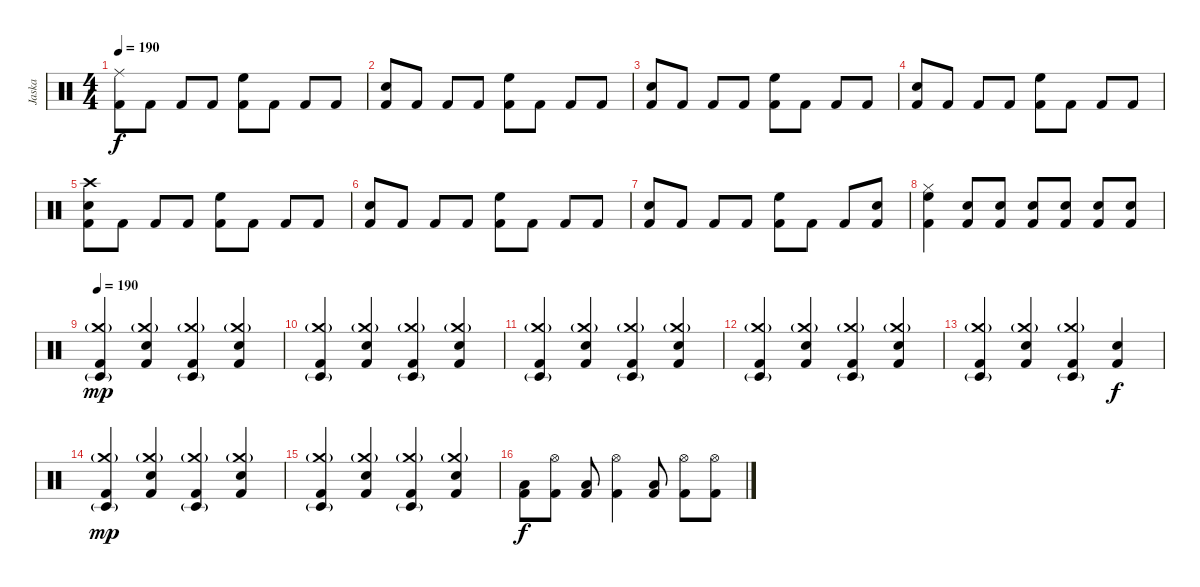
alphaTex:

\track ("Jaska" "Jaska") {instrument percussion}
\staff {score}
\articulation defaults
\ts (4 4)
\tempo 190
\clef neutral
\ks c
("Kick (hit) 2" "Ride (middle)").8{dy f} "Kick (hit) 2".8 "Kick (hit) 2".8 "Kick (hit) 2".8 ("Kick (hit) 2" "High Floor Tom (hit)").8 "Kick (hit) 2".8 "Kick (hit) 2".8 "Kick (hit) 2".8 |
("Kick (hit) 2" "Electric Snare (hit)").8 "Kick (hit) 2".8 "Kick (hit) 2".8 "Kick (hit) 2".8 ("Kick (hit) 2" "High Floor Tom (hit)").8 "Kick (hit) 2".8 "Kick (hit) 2".8 "Kick (hit) 2".8 |
("Kick (hit) 2" "Electric Snare (hit)").8 "Kick (hit) 2".8 "Kick (hit) 2".8 "Kick (hit) 2".8 ("Kick (hit) 2" "High Floor Tom (hit)").8 "Kick (hit) 2".8 "Kick (hit) 2".8 "Kick (hit) 2".8 |
("Kick (hit) 2" "Electric Snare (hit)").8 "Kick (hit) 2".8 "Kick (hit) 2".8 "Kick (hit) 2".8 ("Kick (hit) 2" "High Floor Tom (hit)").8 "Kick (hit) 2".8 "Kick (hit) 2".8 "Kick (hit) 2".8 |
("Kick (hit) 2" "Electric Snare (hit)" "Crash high (hit)").8 "Kick (hit) 2".8 "Kick (hit) 2".8 "Kick (hit) 2".8 ("Kick (hit) 2" "High Floor Tom (hit)").8 "Kick (hit) 2".8 "Kick (hit) 2".8 "Kick (hit) 2".8 |
("Kick (hit) 2" "Electric Snare (hit)").8 "Kick (hit) 2".8 "Kick (hit) 2".8 "Kick (hit) 2".8 ("Kick (hit) 2" "High Floor Tom (hit)").8 "Kick (hit) 2".8 "Kick (hit) 2".8 "Kick (hit) 2".8 |
("Kick (hit) 2" "Electric Snare (hit)").8 "Kick (hit) 2".8 "Kick (hit) 2".8 "Kick (hit) 2".8 ("Kick (hit) 2" "High Floor Tom (hit)").8 "Kick (hit) 2".8 "Kick (hit) 2".8 ("Kick (hit) 2" "Electric Snare (hit)").8 |
("Kick (hit) 2" "Hi-Hat (closed)" "High Floor Tom (hit)").4 ("Kick (hit) 2" "Electric Snare (hit)").8 ("Kick (hit) 2" "Electric Snare (hit)").8 ("Kick (hit) 2" "Electric Snare (hit)").8 ("Kick (hit) 2" "Electric Snare (hit)").8 ("Kick (hit) 2" "Electric Snare (hit)").8 ("Kick (hit) 2" "Electric Snare (hit)").8 |
\tempo 190
("Kick (hit) 2" "Crash medium (hit)"{g} "Timbale low (hit)"{g}).4{dy mp} ("Kick (hit) 2" "Crash medium (hit)"{g} "Snare (hit) 2").4 ("Kick (hit) 2" "Crash medium (hit)"{g} "Timbale low (hit)"{g}).4 ("Kick (hit) 2" "Crash medium (hit)"{g} "Snare (hit) 2").4 |
("Kick (hit) 2" "Crash medium (hit)"{g} "Timbale low (hit)"{g}).4 ("Kick (hit) 2" "Crash medium (hit)"{g} "Snare (hit) 2").4 ("Kick (hit) 2" "Crash medium (hit)"{g} "Timbale low (hit)"{g}).4 ("Kick (hit) 2" "Crash medium (hit)"{g} "Snare (hit) 2").4 |
("Kick (hit) 2" "Crash medium (hit)"{g} "Timbale low (hit)"{g}).4 ("Kick (hit) 2" "Crash medium (hit)"{g} "Snare (hit) 2").4 ("Kick (hit) 2" "Crash medium (hit)"{g} "Timbale low (hit)"{g}).4 ("Kick (hit) 2" "Crash medium (hit)"{g} "Snare (hit) 2").4 |
("Kick (hit) 2" "Crash medium (hit)"{g} "Timbale low (hit)"{g}).4 ("Kick (hit) 2" "Crash medium (hit)"{g} "Snare (hit) 2").4 ("Kick (hit) 2" "Crash medium (hit)"{g} "Timbale low (hit)"{g}).4 ("Kick (hit) 2" "Crash medium (hit)"{g} "Snare (hit) 2").4 |
("Kick (hit) 2" "Crash medium (hit)"{g} "Timbale low (hit)"{g}).4 ("Kick (hit) 2" "Crash medium (hit)"{g} "Snare (hit) 2").4 ("Kick (hit) 2" "Crash medium (hit)"{g} "Timbale low (hit)"{g}).4 ("Kick (hit) 2" "Snare (hit) 2").4{dy f} |
("Kick (hit) 2" "Crash medium (hit)"{g} "Timbale low (hit)"{g}).4{dy mp} ("Kick (hit) 2" "Crash medium (hit)"{g} "Snare (hit) 2").4 ("Kick (hit) 2" "Crash medium (hit)"{g} "Timbale low (hit)"{g}).4 ("Kick (hit) 2" "Crash medium (hit)"{g} "Snare (hit) 2").4 |
("Kick (hit) 2" "Crash medium (hit)"{g} "Timbale low (hit)"{g}).4 ("Kick (hit) 2" "Crash medium (hit)"{g} "Snare (hit) 2").4 ("Kick (hit) 2" "Crash medium (hit)"{g} "Timbale low (hit)"{g}).4 ("Kick (hit) 2" "Crash medium (hit)"{g} "Snare (hit) 2").4 |
("Kick (hit) 2" "Low Tom (hit)").8{dy f} ("Kick (hit) 2" "Hi-Hat (open)").8 ("Kick (hit) 2" "Low Tom (hit)").8 ("Kick (hit) 2" "Hi-Hat (open)").4 ("Kick (hit) 2" "Low Tom (hit)").8 ("Kick (hit) 2" "Hi-Hat (open)").8 ("Kick (hit) 2" "Hi-Hat (open)").8
